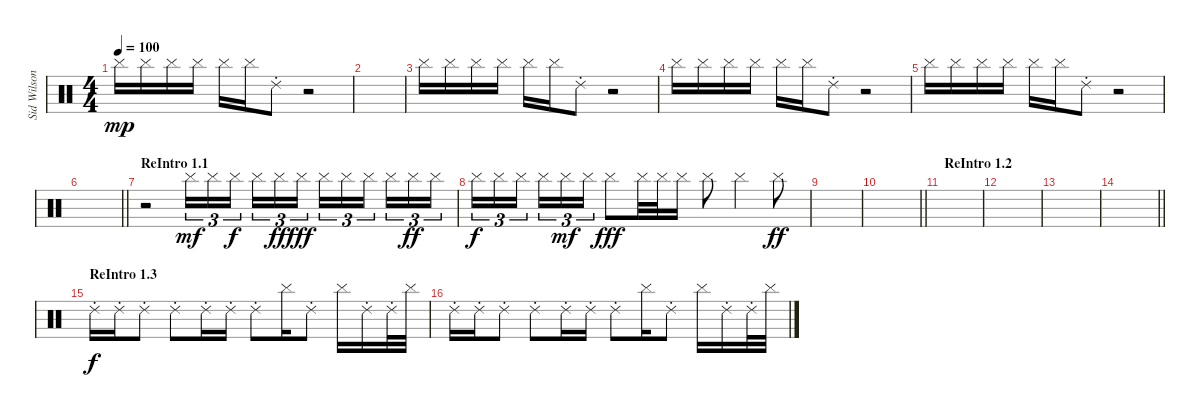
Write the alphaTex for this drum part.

\track ("Sid Wilson" "Sid Wilson") {instrument percussion}
\staff {score}
\articulation defaults
\ts (4 4)
\tempo 100
\clef neutral
\ks c "Cymbal (hit)".16{dy mp} "Cymbal (hit)".16 "Cymbal (hit)".16 "Cymbal (hit)".16 "Cymbal (hit)".16 "Cymbal (hit)".16 "Ride (choke) 2".8
r.2 |
|
"Cymbal (hit)".16 "Cymbal (hit)".16 "Cymbal (hit)".16 "Cymbal (hit)".16 "Cymbal (hit)".16 "Cymbal (hit)".16 "Ride (choke) 2".8 r.2 |
"Cymbal (hit)".16 "Cymbal (hit)".16 "Cymbal (hit)".16 "Cymbal (hit)".16 "Cymbal (hit)".16 "Cymbal (hit)".16 "Ride (choke) 2".8 r.2 |
"Cymbal (hit)".16 "Cymbal (hit)".16 "Cymbal (hit)".16 "Cymbal (hit)".16 "Cymbal (hit)".16 "Cymbal (hit)".16 "Ride (choke) 2".8 r.2 |
\barLineRight lightlight
|
\section ("" "ReIntro 1.1")
r.2 "Cymbal (hit)".16{tu (3 2) dy mf} "Cymbal (hit)".16{tu (3 2)} "Cymbal (hit)".16{tu (3 2) dy f beam splitsecondary} "Cymbal (hit)".16{tu (3 2)} "Cymbal (hit)".16{tu (3 2) dy ff} "Cymbal (hit)".16{tu (3 2) dy fff} "Cymbal (hit)".16{tu (3 2)} "Cymbal (hit)".16{tu (3 2)} "Cymbal (hit)".16{tu (3 2) beam splitsecondary} "Cymbal (hit)".16{tu (3 2)} "Cymbal (hit)".16{tu (3 2) dy ff} "Cymbal (hit)".16{tu (3 2)} |
"Cymbal (hit)".16{tu (3 2) dy f} "Cymbal (hit)".16{tu (3 2)} "Cymbal (hit)".16{tu (3 2) beam splitsecondary} "Cymbal (hit)".16{tu (3 2)} "Cymbal (hit)".16{tu (3 2) dy mf} "Cymbal (hit)".16{tu (3 2)} "Cymbal (hit)".8{dy fff} "Cymbal (hit)".32 "Cymbal (hit)".32 "Cymbal (hit)".16 "Cymbal (hit)".8 "Cymbal (hit)".4 "Cymbal (hit)".8{dy ff} |
|
\barLineRight lightlight
|
\section ("" "ReIntro 1.2")
|
|
|
\barLineRight lightlight
|
\section ("" "ReIntro 1.3")
"Ride (choke) 2".16{dy f} "Ride (choke) 2".16 "Ride (choke) 2".8 "Ride (choke) 2".8 "Ride (choke) 2".16 "Ride (choke) 2".16 "Ride (choke) 2".8 "Cymbal (hit)".16 "Ride (choke) 2".8 "Cymbal (hit)".16 "Ride (choke) 2".16 "Ride (choke) 2".32 "Cymbal (hit)".32 |
"Ride (choke) 2".16 "Ride (choke) 2".16 "Ride (choke) 2".8 "Ride (choke) 2".8 "Ride (choke) 2".16 "Ride (choke) 2".16 "Ride (choke) 2".8 "Cymbal (hit)".16 "Ride (choke) 2".8 "Cymbal (hit)".16 "Ride (choke) 2".16 "Ride (choke) 2".32 "Cymbal (hit)".32
